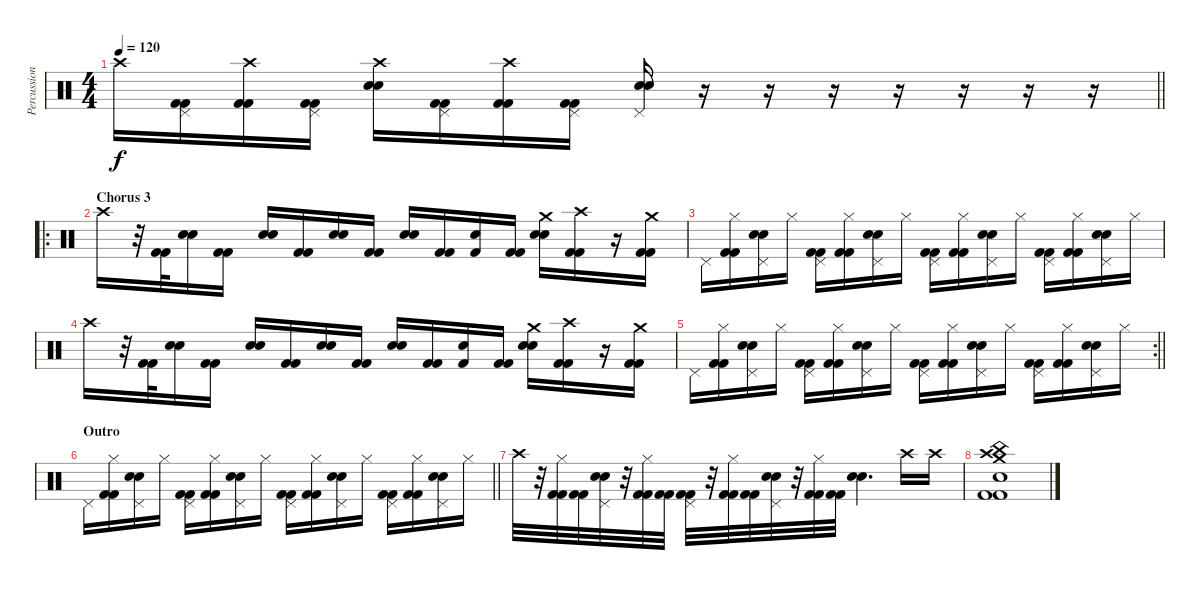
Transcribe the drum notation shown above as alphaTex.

\track ("Percussions" "Percussion") {instrument percussion}
\staff {score}
\articulation defaults
\ts (4 4)
\tempo 120
\clef neutral
\barLineRight lightlight
\ks c "Crash high (hit)".16{dy f}
("Pedal Hi-Hat (hit)" "Kick (hit) 2" "Kick (hit) 2").16 ("Crash high (hit)" "Kick (hit) 2" "Kick (hit) 2").16 ("Pedal Hi-Hat (hit)" "Kick (hit) 2" "Kick (hit) 2").16 ("Crash high (hit)" "Snare (hit) 2" "Electric Snare (hit)").16 ("Pedal Hi-Hat (hit)" "Kick (hit) 2" "Kick (hit) 2").16 ("Crash high (hit)" "Kick (hit) 2" "Kick (hit) 2").16 ("Pedal Hi-Hat (hit)" "Kick (hit) 2" "Kick (hit) 2").16 ("Pedal Hi-Hat (hit)" "Snare (hit) 2" "Electric Snare (hit)").16 r.16 r.16 r.16 r.16 r.16 r.16 r.16 |
\ro
\section ("" "Chorus 3")
"Crash high (hit)".16 r.32 ("Kick (hit) 2" "Kick (hit) 2").32 ("Snare (hit) 2" "Electric Snare (hit)").16 ("Kick (hit) 2" "Kick (hit) 2").16 ("Snare (hit) 2" "Electric Snare (hit)").16 ("Kick (hit) 2" "Kick (hit) 2").16 ("Snare (hit) 2" "Electric Snare (hit)").16 ("Kick (hit) 2" "Kick (hit) 2").16 ("Snare (hit) 2" "Electric Snare (hit)").16 ("Kick (hit) 2" "Kick (hit) 2").16 ("Kick (hit) 2" "Electric Snare (hit)").16 ("Kick (hit) 2" "Kick (hit) 2").16 ("Crash medium (hit)" "Snare (hit) 2" "Electric Snare (hit)").16 ("Crash high (hit)" "Kick (hit) 2" "Kick (hit) 2").16 r.16 ("Crash medium (hit)" "Kick (hit) 2" "Kick (hit) 2").16 |
"Pedal Hi-Hat (hit)".16 ("Hi-Hat (closed)" "Kick (hit) 2" "Kick (hit) 2").16 ("Pedal Hi-Hat (hit)" "Snare (hit) 2" "Electric Snare (hit)").16 "Hi-Hat (closed)".16 ("Pedal Hi-Hat (hit)" "Kick (hit) 2" "Kick (hit) 2").16 ("Hi-Hat (closed)" "Kick (hit) 2" "Kick (hit) 2").16 ("Pedal Hi-Hat (hit)" "Snare (hit) 2" "Electric Snare (hit)").16 "Hi-Hat (closed)".16 ("Pedal Hi-Hat (hit)" "Kick (hit) 2" "Kick (hit) 2").16 ("Hi-Hat (closed)" "Kick (hit) 2" "Kick (hit) 2").16 ("Pedal Hi-Hat (hit)" "Snare (hit) 2" "Electric Snare (hit)").16 "Hi-Hat (closed)".16 ("Pedal Hi-Hat (hit)" "Kick (hit) 2" "Kick (hit) 2").16 ("Hi-Hat (closed)" "Kick (hit) 2" "Kick (hit) 2").16 ("Pedal Hi-Hat (hit)" "Snare (hit) 2" "Electric Snare (hit)").16 "Hi-Hat (closed)".16 |
"Crash high (hit)".16 r.32 ("Kick (hit) 2" "Kick (hit) 2").32 ("Snare (hit) 2" "Electric Snare (hit)").16 ("Kick (hit) 2" "Kick (hit) 2").16 ("Snare (hit) 2" "Electric Snare (hit)").16 ("Kick (hit) 2" "Kick (hit) 2").16 ("Snare (hit) 2" "Electric Snare (hit)").16 ("Kick (hit) 2" "Kick (hit) 2").16 ("Snare (hit) 2" "Electric Snare (hit)").16 ("Kick (hit) 2" "Kick (hit) 2").16 ("Kick (hit) 2" "Electric Snare (hit)").16 ("Kick (hit) 2" "Kick (hit) 2").16 ("Crash medium (hit)" "Snare (hit) 2" "Electric Snare (hit)").16 ("Crash high (hit)" "Kick (hit) 2" "Kick (hit) 2").16 r.16 ("Crash medium (hit)" "Kick (hit) 2" "Kick (hit) 2").16 |
\rc 2
\barLineRight lightlight "Pedal Hi-Hat (hit)".16
("Hi-Hat (closed)" "Kick (hit) 2" "Kick (hit) 2").16 ("Pedal Hi-Hat (hit)" "Snare (hit) 2" "Electric Snare (hit)").16 "Hi-Hat (closed)".16 ("Pedal Hi-Hat (hit)" "Kick (hit) 2" "Kick (hit) 2").16 ("Hi-Hat (closed)" "Kick (hit) 2" "Kick (hit) 2").16 ("Pedal Hi-Hat (hit)" "Snare (hit) 2" "Electric Snare (hit)").16 "Hi-Hat (closed)".16 ("Pedal Hi-Hat (hit)" "Kick (hit) 2" "Kick (hit) 2").16 ("Hi-Hat (closed)" "Kick (hit) 2" "Kick (hit) 2").16 ("Pedal Hi-Hat (hit)" "Snare (hit) 2" "Electric Snare (hit)").16 "Hi-Hat (closed)".16 ("Pedal Hi-Hat (hit)" "Kick (hit) 2" "Kick (hit) 2").16 ("Hi-Hat (closed)" "Kick (hit) 2" "Kick (hit) 2").16 ("Pedal Hi-Hat (hit)" "Snare (hit) 2" "Electric Snare (hit)").16 "Hi-Hat (closed)".16 |
\section ("" "Outro")
\barLineRight lightlight "Pedal Hi-Hat (hit)".16
("Hi-Hat (closed)" "Kick (hit) 2" "Kick (hit) 2").16 ("Pedal Hi-Hat (hit)" "Snare (hit) 2" "Electric Snare (hit)").16 "Hi-Hat (closed)".16 ("Pedal Hi-Hat (hit)" "Kick (hit) 2" "Kick (hit) 2").16 ("Hi-Hat (closed)" "Kick (hit) 2" "Kick (hit) 2").16 ("Pedal Hi-Hat (hit)" "Snare (hit) 2" "Electric Snare (hit)").16 "Hi-Hat (closed)".16 ("Pedal Hi-Hat (hit)" "Kick (hit) 2" "Kick (hit) 2").16 ("Hi-Hat (closed)" "Kick (hit) 2" "Kick (hit) 2").16 ("Pedal Hi-Hat (hit)" "Snare (hit) 2" "Electric Snare (hit)").16 "Hi-Hat (closed)".16 ("Pedal Hi-Hat (hit)" "Kick (hit) 2" "Kick (hit) 2").16 ("Hi-Hat (closed)" "Kick (hit) 2" "Kick (hit) 2").16 ("Pedal Hi-Hat (hit)" "Snare (hit) 2" "Electric Snare (hit)").16 "Hi-Hat (closed)".16 |
"Crash high (hit)".32 r.32 ("Hi-Hat (closed)" "Kick (hit) 2" "Kick (hit) 2").32 ("Kick (hit) 2" "Kick (hit) 2").32 ("Pedal Hi-Hat (hit)" "Snare (hit) 2" "Electric Snare (hit)").32 r.32 ("Hi-Hat (closed)" "Kick (hit) 2" "Kick (hit) 2").32 ("Kick (hit) 2" "Kick (hit) 2").32 ("Pedal Hi-Hat (hit)" "Kick (hit) 2" "Kick (hit) 2").32 r.32 ("Hi-Hat (closed)" "Kick (hit) 2" "Kick (hit) 2").32 ("Kick (hit) 2" "Kick (hit) 2").32 ("Pedal Hi-Hat (hit)" "Snare (hit) 2" "Electric Snare (hit)").32 r.32 ("Hi-Hat (closed)" "Kick (hit) 2" "Kick (hit) 2").32 ("Kick (hit) 2" "Kick (hit) 2").32 ("Snare (hit) 2" "Electric Snare (hit)").4{d} "Crash high (hit)".16 "Crash high (hit)".16 |
("China (hit)" "Crash medium (hit)" "Crash high (hit)" "Electric Snare (hit)" "Kick (hit) 2" "Kick (hit) 2").1
